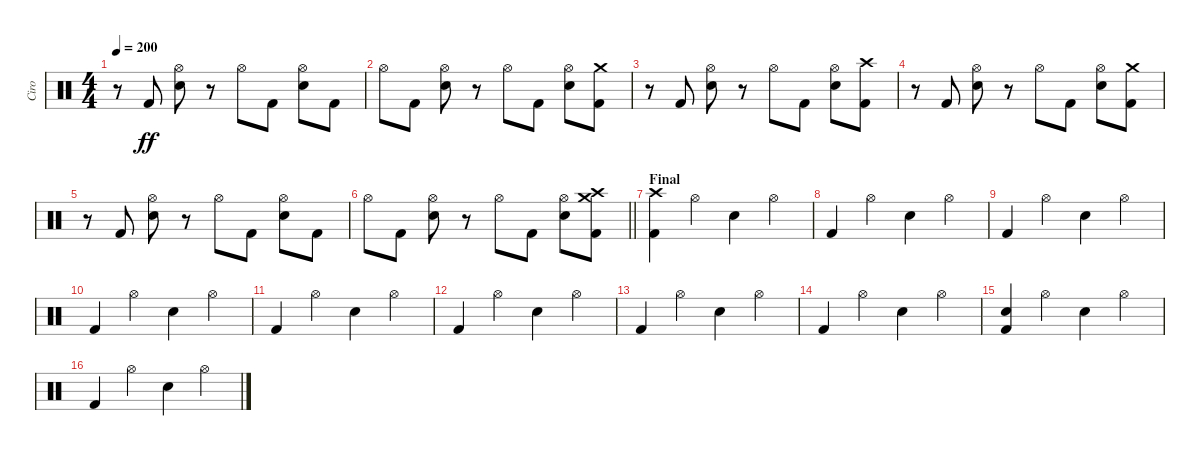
\track ("Ciro" "Ciro") {instrument percussion}
\staff {score}
\articulation defaults
\ts (4 4)
\tempo 200
\clef neutral
\ks c
r.8{dy ff} "Kick (hit) 2".8 ("Hi-Hat (open)" "Snare (hit) 2").8 r.8 "Hi-Hat (open)".8 "Kick (hit) 2".8 ("Hi-Hat (open)" "Snare (hit) 2").8 "Kick (hit) 2".8 |
"Hi-Hat (open)".8 "Kick (hit) 2".8 ("Hi-Hat (open)" "Snare (hit) 2").8 r.8 "Hi-Hat (open)".8 "Kick (hit) 2".8 ("Hi-Hat (open)" "Snare (hit) 2").8 ("Crash medium (hit)" "Kick (hit) 2").8 |
r.8 "Kick (hit) 2".8 ("Hi-Hat (open)" "Snare (hit) 2").8 r.8 "Hi-Hat (open)".8 "Kick (hit) 2".8 ("Hi-Hat (open)" "Snare (hit) 2").8 ("Crash high (hit)" "Kick (hit) 2").8 |
r.8 "Kick (hit) 2".8 ("Hi-Hat (open)" "Snare (hit) 2").8 r.8 "Hi-Hat (open)".8 "Kick (hit) 2".8 ("Hi-Hat (open)" "Snare (hit) 2").8 ("Crash medium (hit)" "Kick (hit) 2").8 |
r.8 "Kick (hit) 2".8 ("Hi-Hat (open)" "Snare (hit) 2").8 r.8 "Hi-Hat (open)".8 "Kick (hit) 2".8 ("Hi-Hat (open)" "Snare (hit) 2").8 "Kick (hit) 2".8 |
\barLineRight lightlight "Hi-Hat (open)".8 "Kick (hit) 2".8
("Hi-Hat (open)" "Snare (hit) 2").8 r.8 "Hi-Hat (open)".8 "Kick (hit) 2".8 ("Hi-Hat (open)" "Snare (hit) 2").8 ("Crash high (hit)" "Crash medium (hit)" "Kick (hit) 2").8 |
\section ("" "Final")
("Crash high (hit)" "Kick (hit) 2").4 "Hi-Hat (open)".4 "Snare (hit) 2".4 "Hi-Hat (open)".4 |
"Kick (hit) 2".4 "Hi-Hat (open)".4 "Snare (hit) 2".4 "Hi-Hat (open)".4 |
"Kick (hit) 2".4 "Hi-Hat (open)".4 "Snare (hit) 2".4 "Hi-Hat (open)".4 |
"Kick (hit) 2".4 "Hi-Hat (open)".4 "Snare (hit) 2".4 "Hi-Hat (open)".4 |
"Kick (hit) 2".4 "Hi-Hat (open)".4 "Snare (hit) 2".4 "Hi-Hat (open)".4 |
"Kick (hit) 2".4 "Hi-Hat (open)".4 "Snare (hit) 2".4 "Hi-Hat (open)".4 |
"Kick (hit) 2".4 "Hi-Hat (open)".4 "Snare (hit) 2".4 "Hi-Hat (open)".4 |
"Kick (hit) 2".4 "Hi-Hat (open)".4 "Snare (hit) 2".4 "Hi-Hat (open)".4 |
("Snare (hit) 2" "Kick (hit) 2").4 "Hi-Hat (open)".4 "Snare (hit) 2".4 "Hi-Hat (open)".4 |
"Kick (hit) 2".4 "Hi-Hat (open)".4 "Snare (hit) 2".4 "Hi-Hat (open)".4
